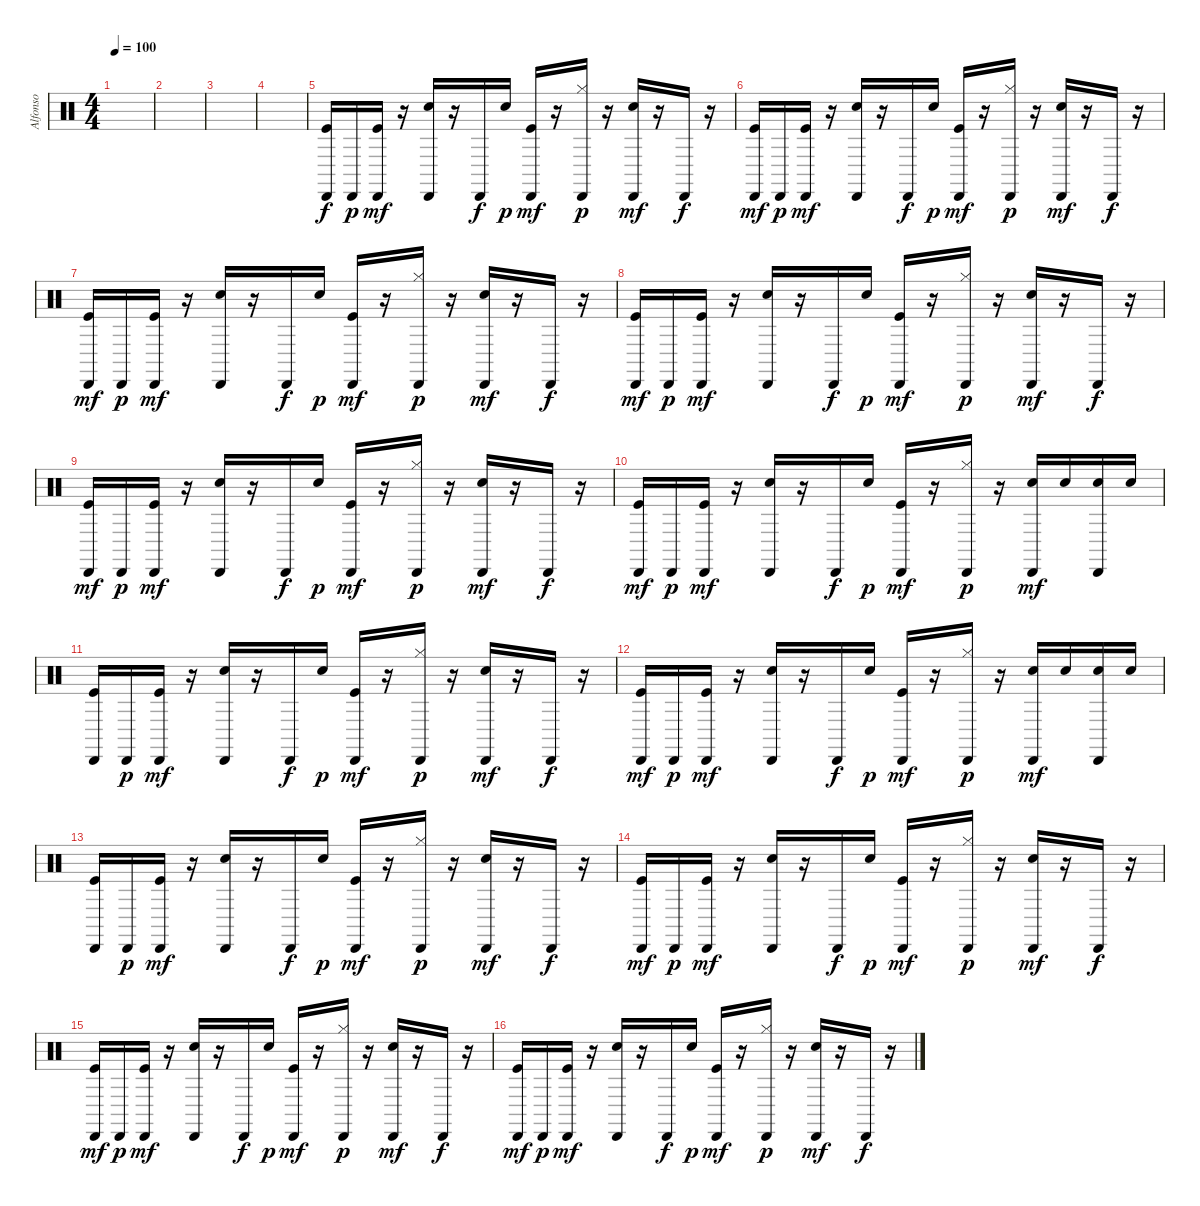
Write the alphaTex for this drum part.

\track ("Alfonso" "Alfonso") {instrument percussion}
\staff {score}
\articulation defaults
\ts (4 4)
\tempo 100
\clef neutral
\ks c
|
|
|
|
("Kick (hit)" "Cabasa (hit)").16 "Cabasa (hit)".16{dy p} ("Kick (hit)" "Cabasa (hit)").16{dy mf} r.16 ("Electric Snare (hit)" "Cabasa (hit)").16 r.16 "Cabasa (hit)".16{dy f} "Electric Snare (hit)".16{dy p} ("Kick (hit)" "Cabasa (hit)").16{dy mf} r.16 ("Hi-Hat (closed)" "Cabasa (hit)").16{dy p} r.16 ("Electric Snare (hit)" "Cabasa (hit)").16{dy mf} r.16 "Cabasa (hit)".16{dy f} r.16 |
("Kick (hit)" "Cabasa (hit)").16{dy mf} "Cabasa (hit)".16{dy p} ("Kick (hit)" "Cabasa (hit)").16{dy mf} r.16 ("Electric Snare (hit)" "Cabasa (hit)").16 r.16 "Cabasa (hit)".16{dy f} "Electric Snare (hit)".16{dy p} ("Kick (hit)" "Cabasa (hit)").16{dy mf} r.16 ("Hi-Hat (closed)" "Cabasa (hit)").16{dy p} r.16 ("Electric Snare (hit)" "Cabasa (hit)").16{dy mf} r.16 "Cabasa (hit)".16{dy f} r.16 |
("Kick (hit)" "Cabasa (hit)").16{dy mf} "Cabasa (hit)".16{dy p} ("Kick (hit)" "Cabasa (hit)").16{dy mf} r.16 ("Electric Snare (hit)" "Cabasa (hit)").16 r.16 "Cabasa (hit)".16{dy f} "Electric Snare (hit)".16{dy p} ("Kick (hit)" "Cabasa (hit)").16{dy mf} r.16 ("Hi-Hat (closed)" "Cabasa (hit)").16{dy p} r.16 ("Electric Snare (hit)" "Cabasa (hit)").16{dy mf} r.16 "Cabasa (hit)".16{dy f} r.16 |
("Kick (hit)" "Cabasa (hit)").16{dy mf} "Cabasa (hit)".16{dy p} ("Kick (hit)" "Cabasa (hit)").16{dy mf} r.16 ("Electric Snare (hit)" "Cabasa (hit)").16 r.16 "Cabasa (hit)".16{dy f} "Electric Snare (hit)".16{dy p} ("Kick (hit)" "Cabasa (hit)").16{dy mf} r.16 ("Hi-Hat (closed)" "Cabasa (hit)").16{dy p} r.16 ("Electric Snare (hit)" "Cabasa (hit)").16{dy mf} r.16 "Cabasa (hit)".16{dy f} r.16 |
("Kick (hit)" "Cabasa (hit)").16{dy mf} "Cabasa (hit)".16{dy p} ("Kick (hit)" "Cabasa (hit)").16{dy mf} r.16 ("Electric Snare (hit)" "Cabasa (hit)").16 r.16 "Cabasa (hit)".16{dy f} "Electric Snare (hit)".16{dy p} ("Kick (hit)" "Cabasa (hit)").16{dy mf} r.16 ("Hi-Hat (closed)" "Cabasa (hit)").16{dy p} r.16 ("Electric Snare (hit)" "Cabasa (hit)").16{dy mf} r.16 "Cabasa (hit)".16{dy f} r.16 |
("Kick (hit)" "Cabasa (hit)").16{dy mf} "Cabasa (hit)".16{dy p} ("Kick (hit)" "Cabasa (hit)").16{dy mf} r.16 ("Electric Snare (hit)" "Cabasa (hit)").16 r.16 "Cabasa (hit)".16{dy f} "Electric Snare (hit)".16{dy p} ("Kick (hit)" "Cabasa (hit)").16{dy mf} r.16 ("Hi-Hat (closed)" "Cabasa (hit)").16{dy p} r.16 ("Electric Snare (hit)" "Cabasa (hit)").16{dy mf} "Snare (hit) 2".16 ("Snare (hit) 2" "Cabasa (hit)").16 "Snare (hit) 2".16 |
("Kick (hit)" "Cabasa (hit)").16 "Cabasa (hit)".16{dy p} ("Kick (hit)" "Cabasa (hit)").16{dy mf} r.16 ("Electric Snare (hit)" "Cabasa (hit)").16 r.16 "Cabasa (hit)".16{dy f} "Electric Snare (hit)".16{dy p} ("Kick (hit)" "Cabasa (hit)").16{dy mf} r.16 ("Hi-Hat (closed)" "Cabasa (hit)").16{dy p} r.16 ("Electric Snare (hit)" "Cabasa (hit)").16{dy mf} r.16 "Cabasa (hit)".16{dy f} r.16 |
("Kick (hit)" "Cabasa (hit)").16{dy mf} "Cabasa (hit)".16{dy p} ("Kick (hit)" "Cabasa (hit)").16{dy mf} r.16 ("Electric Snare (hit)" "Cabasa (hit)").16 r.16 "Cabasa (hit)".16{dy f} "Electric Snare (hit)".16{dy p} ("Kick (hit)" "Cabasa (hit)").16{dy mf} r.16 ("Hi-Hat (closed)" "Cabasa (hit)").16{dy p} r.16 ("Electric Snare (hit)" "Cabasa (hit)").16{dy mf} "Snare (hit) 2".16 ("Snare (hit) 2" "Cabasa (hit)").16 "Snare (hit) 2".16 |
("Kick (hit)" "Cabasa (hit)").16 "Cabasa (hit)".16{dy p} ("Kick (hit)" "Cabasa (hit)").16{dy mf} r.16 ("Electric Snare (hit)" "Cabasa (hit)").16 r.16 "Cabasa (hit)".16{dy f} "Electric Snare (hit)".16{dy p} ("Kick (hit)" "Cabasa (hit)").16{dy mf} r.16 ("Hi-Hat (closed)" "Cabasa (hit)").16{dy p} r.16 ("Electric Snare (hit)" "Cabasa (hit)").16{dy mf} r.16 "Cabasa (hit)".16{dy f} r.16 |
("Kick (hit)" "Cabasa (hit)").16{dy mf} "Cabasa (hit)".16{dy p} ("Kick (hit)" "Cabasa (hit)").16{dy mf} r.16 ("Electric Snare (hit)" "Cabasa (hit)").16 r.16 "Cabasa (hit)".16{dy f} "Electric Snare (hit)".16{dy p} ("Kick (hit)" "Cabasa (hit)").16{dy mf} r.16 ("Hi-Hat (closed)" "Cabasa (hit)").16{dy p} r.16 ("Electric Snare (hit)" "Cabasa (hit)").16{dy mf} r.16 "Cabasa (hit)".16{dy f} r.16 |
("Kick (hit)" "Cabasa (hit)").16{dy mf} "Cabasa (hit)".16{dy p} ("Kick (hit)" "Cabasa (hit)").16{dy mf} r.16 ("Electric Snare (hit)" "Cabasa (hit)").16 r.16 "Cabasa (hit)".16{dy f} "Electric Snare (hit)".16{dy p} ("Kick (hit)" "Cabasa (hit)").16{dy mf} r.16 ("Hi-Hat (closed)" "Cabasa (hit)").16{dy p} r.16 ("Electric Snare (hit)" "Cabasa (hit)").16{dy mf} r.16 "Cabasa (hit)".16{dy f} r.16 |
("Kick (hit)" "Cabasa (hit)").16{dy mf} "Cabasa (hit)".16{dy p} ("Kick (hit)" "Cabasa (hit)").16{dy mf} r.16 ("Electric Snare (hit)" "Cabasa (hit)").16 r.16 "Cabasa (hit)".16{dy f} "Electric Snare (hit)".16{dy p} ("Kick (hit)" "Cabasa (hit)").16{dy mf} r.16 ("Hi-Hat (closed)" "Cabasa (hit)").16{dy p} r.16 ("Electric Snare (hit)" "Cabasa (hit)").16{dy mf} r.16 "Cabasa (hit)".16{dy f} r.16
